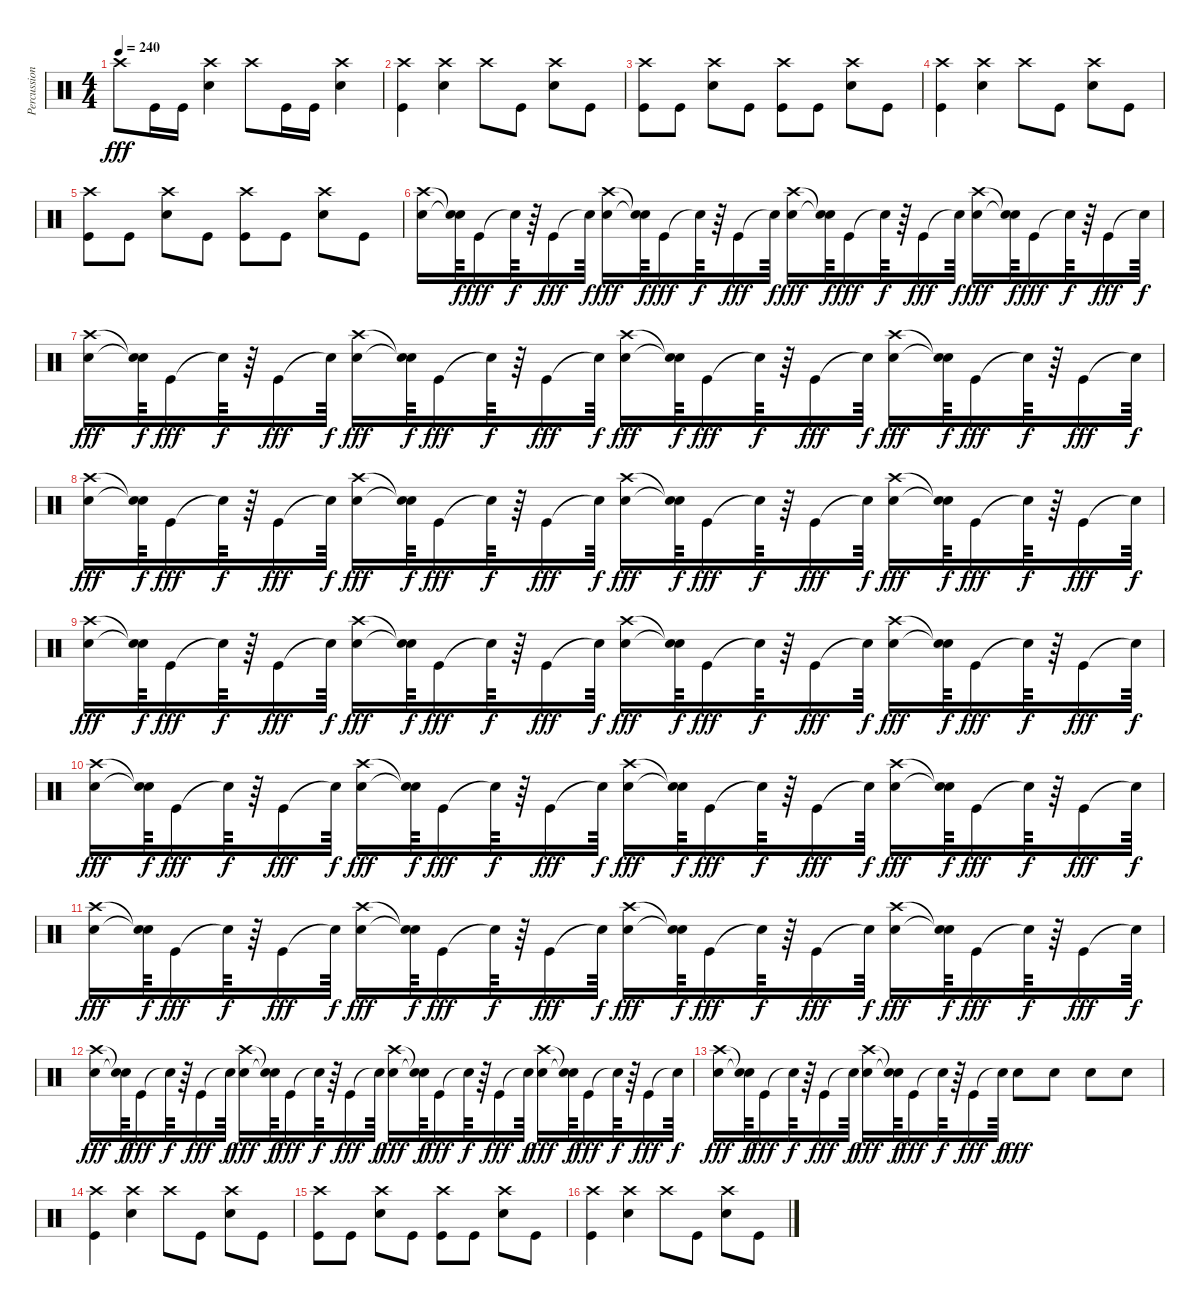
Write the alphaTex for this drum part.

\track ("Percussion" "Percussion") {instrument percussion}
\staff {score}
\articulation defaults
\ts (4 4)
\tempo 240
\clef neutral
\ks c "Crash high (hit)".8{dy fff} "Kick (hit)".16 "Kick (hit)".16
("Crash high (hit)" "Snare (hit) 2").4 "Crash high (hit)".8 "Kick (hit)".16 "Kick (hit)".16 ("Crash high (hit)" "Snare (hit) 2").4 |
("Crash high (hit)" "Kick (hit)").4 ("Crash high (hit)" "Snare (hit) 2").4 "Crash high (hit)".8 "Kick (hit)".8 ("Crash high (hit)" "Snare (hit) 2").8 "Kick (hit)".8 |
("Crash high (hit)" "Kick (hit)").8 "Kick (hit)".8 ("Crash high (hit)" "Snare (hit) 2").8 "Kick (hit)".8 ("Crash high (hit)" "Kick (hit)").8 "Kick (hit)".8 ("Crash high (hit)" "Snare (hit) 2").8 "Kick (hit)".8 |
("Crash high (hit)" "Kick (hit)").4 ("Crash high (hit)" "Snare (hit) 2").4 "Crash high (hit)".8 "Kick (hit)".8 ("Crash high (hit)" "Snare (hit) 2").8 "Kick (hit)".8 |
("Crash high (hit)" "Kick (hit)").8 "Kick (hit)".8 ("Crash high (hit)" "Snare (hit) 2").8 "Kick (hit)".8 ("Crash high (hit)" "Kick (hit)").8 "Kick (hit)".8 ("Crash high (hit)" "Snare (hit) 2").8 "Kick (hit)".8 |
("Crash high (hit)" "Snare (hit) 2").16 ("Snare (hit)"{t} "Snare (hit)"{t}).64{dy f} "Kick (hit)".16{dy fff} "Snare (hit)"{t}.64{dy f} r.64 "Kick (hit)".16{dy fff} "Snare (hit)"{t}.64{dy f} ("Crash high (hit)" "Snare (hit) 2").16{dy fff} ("Snare (hit)"{t} "Snare (hit)"{t}).64{dy f} "Kick (hit)".16{dy fff} "Snare (hit)"{t}.64{dy f} r.64 "Kick (hit)".16{dy fff} "Snare (hit)"{t}.64{dy f} ("Crash high (hit)" "Snare (hit) 2").16{dy fff} ("Snare (hit)"{t} "Snare (hit)"{t}).64{dy f} "Kick (hit)".16{dy fff} "Snare (hit)"{t}.64{dy f} r.64 "Kick (hit)".16{dy fff} "Snare (hit)"{t}.64{dy f} ("Crash high (hit)" "Snare (hit) 2").16{dy fff} ("Snare (hit)"{t} "Snare (hit)"{t}).64{dy f} "Kick (hit)".16{dy fff} "Snare (hit)"{t}.64{dy f} r.64 "Kick (hit)".16{dy fff} "Snare (hit)"{t}.64{dy f} |
("Crash high (hit)" "Snare (hit) 2").16{dy fff} ("Snare (hit)"{t} "Snare (hit)"{t}).64{dy f} "Kick (hit)".16{dy fff} "Snare (hit)"{t}.64{dy f} r.64 "Kick (hit)".16{dy fff} "Snare (hit)"{t}.64{dy f} ("Crash high (hit)" "Snare (hit) 2").16{dy fff} ("Snare (hit)"{t} "Snare (hit)"{t}).64{dy f} "Kick (hit)".16{dy fff} "Snare (hit)"{t}.64{dy f} r.64 "Kick (hit)".16{dy fff} "Snare (hit)"{t}.64{dy f} ("Crash high (hit)" "Snare (hit) 2").16{dy fff} ("Snare (hit)"{t} "Snare (hit)"{t}).64{dy f} "Kick (hit)".16{dy fff} "Snare (hit)"{t}.64{dy f} r.64 "Kick (hit)".16{dy fff} "Snare (hit)"{t}.64{dy f} ("Crash high (hit)" "Snare (hit) 2").16{dy fff} ("Snare (hit)"{t} "Snare (hit)"{t}).64{dy f} "Kick (hit)".16{dy fff} "Snare (hit)"{t}.64{dy f} r.64 "Kick (hit)".16{dy fff} "Snare (hit)"{t}.64{dy f} |
("Crash high (hit)" "Snare (hit) 2").16{dy fff} ("Snare (hit)"{t} "Snare (hit)"{t}).64{dy f} "Kick (hit)".16{dy fff} "Snare (hit)"{t}.64{dy f} r.64 "Kick (hit)".16{dy fff} "Snare (hit)"{t}.64{dy f} ("Crash high (hit)" "Snare (hit) 2").16{dy fff} ("Snare (hit)"{t} "Snare (hit)"{t}).64{dy f} "Kick (hit)".16{dy fff} "Snare (hit)"{t}.64{dy f} r.64 "Kick (hit)".16{dy fff} "Snare (hit)"{t}.64{dy f} ("Crash high (hit)" "Snare (hit) 2").16{dy fff} ("Snare (hit)"{t} "Snare (hit)"{t}).64{dy f} "Kick (hit)".16{dy fff} "Snare (hit)"{t}.64{dy f} r.64 "Kick (hit)".16{dy fff} "Snare (hit)"{t}.64{dy f} ("Crash high (hit)" "Snare (hit) 2").16{dy fff} ("Snare (hit)"{t} "Snare (hit)"{t}).64{dy f} "Kick (hit)".16{dy fff} "Snare (hit)"{t}.64{dy f} r.64 "Kick (hit)".16{dy fff} "Snare (hit)"{t}.64{dy f} |
("Crash high (hit)" "Snare (hit) 2").16{dy fff} ("Snare (hit)"{t} "Snare (hit)"{t}).64{dy f} "Kick (hit)".16{dy fff} "Snare (hit)"{t}.64{dy f} r.64 "Kick (hit)".16{dy fff} "Snare (hit)"{t}.64{dy f} ("Crash high (hit)" "Snare (hit) 2").16{dy fff} ("Snare (hit)"{t} "Snare (hit)"{t}).64{dy f} "Kick (hit)".16{dy fff} "Snare (hit)"{t}.64{dy f} r.64 "Kick (hit)".16{dy fff} "Snare (hit)"{t}.64{dy f} ("Crash high (hit)" "Snare (hit) 2").16{dy fff} ("Snare (hit)"{t} "Snare (hit)"{t}).64{dy f} "Kick (hit)".16{dy fff} "Snare (hit)"{t}.64{dy f} r.64 "Kick (hit)".16{dy fff} "Snare (hit)"{t}.64{dy f} ("Crash high (hit)" "Snare (hit) 2").16{dy fff} ("Snare (hit)"{t} "Snare (hit)"{t}).64{dy f} "Kick (hit)".16{dy fff} "Snare (hit)"{t}.64{dy f} r.64 "Kick (hit)".16{dy fff} "Snare (hit)"{t}.64{dy f} |
("Crash high (hit)" "Snare (hit) 2").16{dy fff} ("Snare (hit)"{t} "Snare (hit)"{t}).64{dy f} "Kick (hit)".16{dy fff} "Snare (hit)"{t}.64{dy f} r.64 "Kick (hit)".16{dy fff} "Snare (hit)"{t}.64{dy f} ("Crash high (hit)" "Snare (hit) 2").16{dy fff} ("Snare (hit)"{t} "Snare (hit)"{t}).64{dy f} "Kick (hit)".16{dy fff} "Snare (hit)"{t}.64{dy f} r.64 "Kick (hit)".16{dy fff} "Snare (hit)"{t}.64{dy f} ("Crash high (hit)" "Snare (hit) 2").16{dy fff} ("Snare (hit)"{t} "Snare (hit)"{t}).64{dy f} "Kick (hit)".16{dy fff} "Snare (hit)"{t}.64{dy f} r.64 "Kick (hit)".16{dy fff} "Snare (hit)"{t}.64{dy f} ("Crash high (hit)" "Snare (hit) 2").16{dy fff} ("Snare (hit)"{t} "Snare (hit)"{t}).64{dy f} "Kick (hit)".16{dy fff} "Snare (hit)"{t}.64{dy f} r.64 "Kick (hit)".16{dy fff} "Snare (hit)"{t}.64{dy f} |
("Crash high (hit)" "Snare (hit) 2").16{dy fff} ("Snare (hit)"{t} "Snare (hit)"{t}).64{dy f} "Kick (hit)".16{dy fff} "Snare (hit)"{t}.64{dy f} r.64 "Kick (hit)".16{dy fff} "Snare (hit)"{t}.64{dy f} ("Crash high (hit)" "Snare (hit) 2").16{dy fff} ("Snare (hit)"{t} "Snare (hit)"{t}).64{dy f} "Kick (hit)".16{dy fff} "Snare (hit)"{t}.64{dy f} r.64 "Kick (hit)".16{dy fff} "Snare (hit)"{t}.64{dy f} ("Crash high (hit)" "Snare (hit) 2").16{dy fff} ("Snare (hit)"{t} "Snare (hit)"{t}).64{dy f} "Kick (hit)".16{dy fff} "Snare (hit)"{t}.64{dy f} r.64 "Kick (hit)".16{dy fff} "Snare (hit)"{t}.64{dy f} ("Crash high (hit)" "Snare (hit) 2").16{dy fff} ("Snare (hit)"{t} "Snare (hit)"{t}).64{dy f} "Kick (hit)".16{dy fff} "Snare (hit)"{t}.64{dy f} r.64 "Kick (hit)".16{dy fff} "Snare (hit)"{t}.64{dy f} |
("Crash high (hit)" "Snare (hit) 2").16{dy fff} ("Snare (hit)"{t} "Snare (hit)"{t}).64{dy f} "Kick (hit)".16{dy fff} "Snare (hit)"{t}.64{dy f} r.64 "Kick (hit)".16{dy fff} "Snare (hit)"{t}.64{dy f} ("Crash high (hit)" "Snare (hit) 2").16{dy fff} ("Snare (hit)"{t} "Snare (hit)"{t}).64{dy f} "Kick (hit)".16{dy fff} "Snare (hit)"{t}.64{dy f} r.64 "Kick (hit)".16{dy fff} "Snare (hit)"{t}.64{dy f} ("Crash high (hit)" "Snare (hit) 2").16{dy fff} ("Snare (hit)"{t} "Snare (hit)"{t}).64{dy f} "Kick (hit)".16{dy fff} "Snare (hit)"{t}.64{dy f} r.64 "Kick (hit)".16{dy fff} "Snare (hit)"{t}.64{dy f} ("Crash high (hit)" "Snare (hit) 2").16{dy fff} ("Snare (hit)"{t} "Snare (hit)"{t}).64{dy f} "Kick (hit)".16{dy fff} "Snare (hit)"{t}.64{dy f} r.64 "Kick (hit)".16{dy fff} "Snare (hit)"{t}.64{dy f} |
("Crash high (hit)" "Snare (hit) 2").16{dy fff} ("Snare (hit)"{t} "Snare (hit)"{t}).64{dy f} "Kick (hit)".16{dy fff} "Snare (hit)"{t}.64{dy f} r.64 "Kick (hit)".16{dy fff} "Snare (hit)"{t}.64{dy f} ("Crash high (hit)" "Snare (hit) 2").16{dy fff} ("Snare (hit)"{t} "Snare (hit)"{t}).64{dy f} "Kick (hit)".16{dy fff} "Snare (hit)"{t}.64{dy f} r.64 "Kick (hit)".16{dy fff} "Snare (hit)"{t}.64{dy f} "Snare (hit) 2".8{dy fff} "Snare (hit) 2".8 "Snare (hit) 2".8 "Snare (hit) 2".8 |
("Crash high (hit)" "Kick (hit)").4 ("Crash high (hit)" "Snare (hit) 2").4 "Crash high (hit)".8 "Kick (hit)".8 ("Crash high (hit)" "Snare (hit) 2").8 "Kick (hit)".8 |
("Crash high (hit)" "Kick (hit)").8 "Kick (hit)".8 ("Crash high (hit)" "Snare (hit) 2").8 "Kick (hit)".8 ("Crash high (hit)" "Kick (hit)").8 "Kick (hit)".8 ("Crash high (hit)" "Snare (hit) 2").8 "Kick (hit)".8 |
("Crash high (hit)" "Kick (hit)").4 ("Crash high (hit)" "Snare (hit) 2").4 "Crash high (hit)".8 "Kick (hit)".8 ("Crash high (hit)" "Snare (hit) 2").8 "Kick (hit)".8
